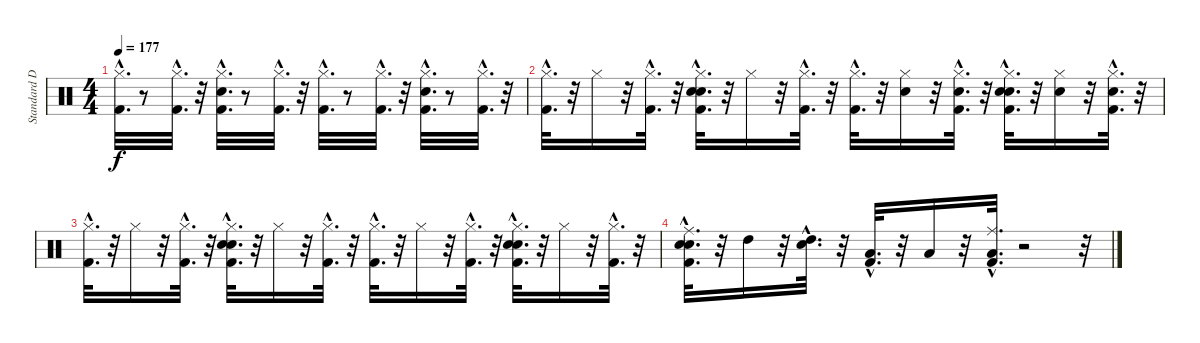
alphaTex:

\track ("Standard Drums" "Standard D") {instrument percussion}
\staff {score}
\articulation defaults
\ts (4 4)
\tempo 177
\clef neutral
\ks c
("Kick (hit) 2"{hac} "Hi-Hat (closed)"{hac}).32{d dy f} r.8 ("Kick (hit) 2"{hac} "Hi-Hat (closed)"{hac}).32{d} r.32 ("Kick (hit) 2"{hac} "Snare (hit) 2"{hac} "Hi-Hat (closed)"{hac}).32{d} r.8 ("Kick (hit) 2"{hac} "Hi-Hat (closed)"{hac}).32{d} r.32 ("Kick (hit) 2"{hac} "Hi-Hat (closed)"{hac}).32{d} r.8 ("Kick (hit) 2"{hac} "Hi-Hat (closed)"{hac}).32{d} r.32 ("Kick (hit) 2"{hac} "Snare (hit) 2"{hac} "Hi-Hat (closed)"{hac}).32{d} r.8 ("Kick (hit) 2"{hac} "Hi-Hat (closed)"{hac}).32{d} r.32 |
("Kick (hit) 2"{hac} "Hi-Hat (closed)"{hac}).32{d} r.32 "Hi-Hat (closed)".16 r.32 ("Kick (hit) 2"{hac} "Hi-Hat (closed)"{hac}).32{d} r.32 ("Kick (hit) 2"{hac} "Snare (hit) 2"{hac} "Hi-Hat (closed)"{hac} "Hand Clap (hit)"{hac}).32{d} r.32 "Hi-Hat (closed)".16 r.32 ("Kick (hit) 2"{hac} "Hi-Hat (closed)"{hac}).32{d} r.32 ("Kick (hit) 2"{hac} "Hi-Hat (closed)"{hac}).32{d} r.32 ("Snare (hit) 2" "Hi-Hat (closed)").16 r.32 ("Kick (hit) 2"{hac} "Snare (hit) 2"{hac} "Hi-Hat (closed)"{hac}).32{d} r.32 ("Kick (hit) 2"{hac} "Snare (hit) 2"{hac} "Hi-Hat (closed)"{hac} "Hand Clap (hit)"{hac}).32{d} r.32 ("Snare (hit) 2" "Hi-Hat (closed)").16 r.32 ("Kick (hit) 2"{hac} "Snare (hit) 2"{hac} "Hi-Hat (closed)"{hac}).32{d} r.32 |
("Kick (hit) 2"{hac} "Hi-Hat (closed)"{hac}).32{d} r.32 "Hi-Hat (closed)".16 r.32 ("Kick (hit) 2"{hac} "Hi-Hat (closed)"{hac}).32{d} r.32 ("Kick (hit) 2"{hac} "Snare (hit) 2"{hac} "Hi-Hat (closed)"{hac} "Hand Clap (hit)"{hac}).32{d} r.32 "Hi-Hat (closed)".16 r.32 ("Kick (hit) 2"{hac} "Hi-Hat (closed)"{hac}).32{d} r.32 ("Kick (hit) 2"{hac} "Hi-Hat (closed)"{hac}).32{d} r.32 "Hi-Hat (closed)".16 r.32 ("Kick (hit) 2"{hac} "Hi-Hat (closed)"{hac}).32{d} r.32 ("Kick (hit) 2"{hac} "Snare (hit) 2"{hac} "Hi-Hat (closed)"{hac} "Hand Clap (hit)"{hac}).32{d} r.32 "Hi-Hat (closed)".16 r.32 ("Kick (hit) 2"{hac} "Hi-Hat (closed)"{hac}).32{d} r.32 |
("Kick (hit) 2"{hac} "Snare (hit) 2"{hac} "Ride (middle)"{hac} "Hand Clap (hit)"{hac}).32{d} r.32 "High Tom (hit)".16 r.32 ("Snare (hit) 2"{hac} "High Tom (hit)"{hac}).32{d} r.32 ("Kick (hit) 2"{hac} "Low Tom (hit)"{hac}).32{d} r.32 "Low Tom (hit)".16 r.32 ("Kick (hit) 2"{hac} "Ride (middle)"{hac} "Low Floor Tom (hit)"{hac}).32{d} r.2 r.32
